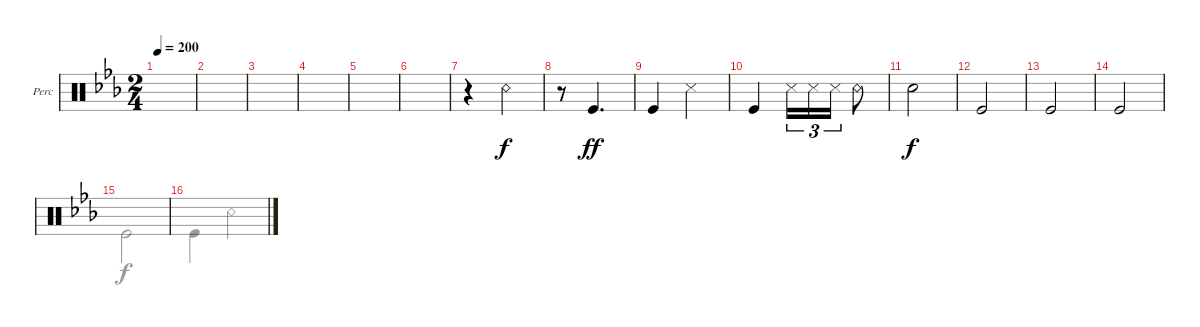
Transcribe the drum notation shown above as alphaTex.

\defaultSystemsLayout 4
\bracketExtendMode groupsimilarinstruments
\firstSystemTrackNameOrientation horizontal
\otherSystemsTrackNameOrientation horizontal
\track ("Body Percussion" "Perc") {instrument percussion}
\staff {score}
\articulation defaults
\voice
\ts (2 4)
\scale
0.182716
\tempo 200
\accidentals auto
\clef neutral
\ottava regular
\simile none
\ks cminor
|
\scale
0.337808 |
\scale
0.219779 |
\scale
0.264021 |
\scale
0.178283 |
\scale
0.372709 |
\scale
0.215304 r.4 "Snare (rim shot)".4 |
\scale
0.26155 r.8 "Kick (hit)".4{d dy ff} |
\scale
0.150713 "Kick (hit)".4 "Snare (side stick) 3".4 |
\scale
0.350356 "Kick (hit)".4 "Snare (side stick) 3".16{tu (3 2)} "Snare (side stick) 3".16{tu (3 2)} "Snare (side stick) 3".16{tu (3 2)} "Snare (rim shot)".8 |
\scale
0.274776 "Snare (hit) 2".2{dy f} |
\scale
0.183184 "Kick (hit)".2 |
\scale
0.191443 "Kick (hit)".2 |
"Kick (hit)".2 |
|
\voice
\clef neutral
\ottava regular
\simile none
\ks cminor
|
|
|
|
|
|
|
|
|
|
|
|
|
|
"Kick (hit)".2 |
"Kick (hit)".4 "Snare (rim shot)".4
